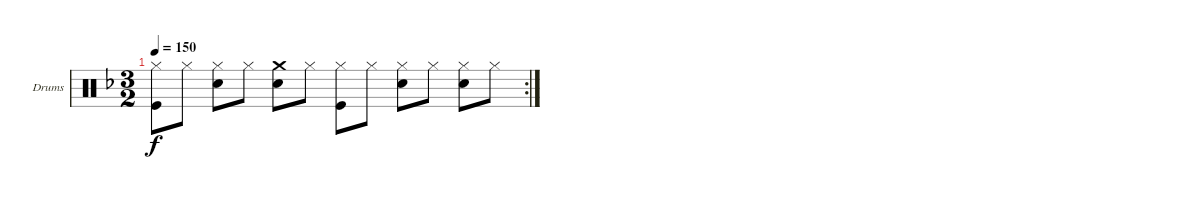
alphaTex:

\bracketExtendMode groupsimilarinstruments
\firstSystemTrackNameOrientation horizontal
\otherSystemsTrackNameOrientation horizontal
\track ("Drumkit" "Drums") {instrument percussion}
\staff {score}
\articulation defaults
\rc 2
\ts (3 2)
\tempo 150
\clef neutral
\ks f
("Hi-Hat (closed)" "Kick (hit)").8{dy f} "Hi-Hat (closed)".8 ("Hi-Hat (closed)" "Snare (hit) 2").8 "Hi-Hat (closed)".8 ("Crash medium (hit)" "Snare (hit) 2").8 "Hi-Hat (closed)".8 ("Hi-Hat (closed)" "Kick (hit)").8 "Hi-Hat (closed)".8 ("Hi-Hat (closed)" "Snare (hit) 2").8 "Hi-Hat (closed)".8 ("Hi-Hat (closed)" "Snare (hit) 2").8 "Hi-Hat (closed)".8
